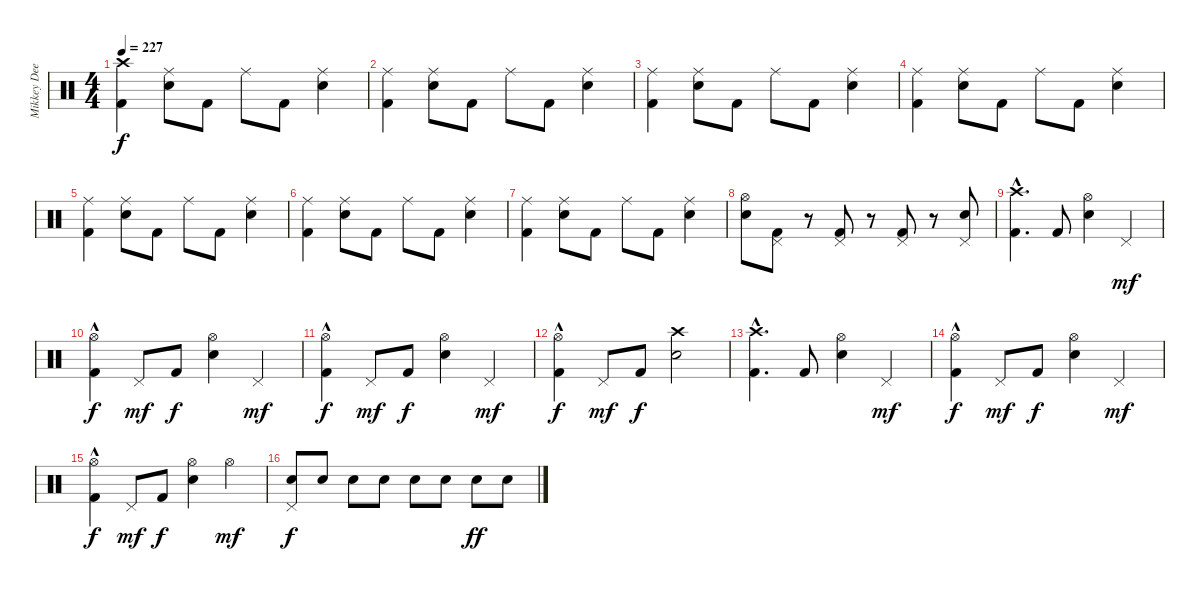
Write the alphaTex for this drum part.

\track ("Mikkey Dee" "Mikkey Dee") {instrument percussion}
\staff {score}
\articulation defaults
\ts (4 4)
\tempo 227
\clef neutral
\ks c
("Crash high (hit)" "Kick (hit) 2").4{dy f} ("Ride (middle)" "Electric Snare (hit)").8 "Kick (hit) 2".8 "Ride (middle)".8 "Kick (hit) 2".8 ("Electric Snare (hit)" "Ride (middle)").4 |
("Ride (middle)" "Kick (hit) 2").4 ("Ride (middle)" "Electric Snare (hit)").8 "Kick (hit) 2".8 "Ride (middle)".8 "Kick (hit) 2".8 ("Ride (middle)" "Electric Snare (hit)").4 |
("Kick (hit) 2" "Ride (middle)").4 ("Electric Snare (hit)" "Ride (middle)").8 "Kick (hit) 2".8 "Ride (middle)".8 "Kick (hit) 2".8 ("Electric Snare (hit)" "Ride (middle)").4 |
("Kick (hit) 2" "Ride (middle)").4 ("Electric Snare (hit)" "Ride (middle)").8 "Kick (hit) 2".8 "Ride (middle)".8 "Kick (hit) 2".8 ("Ride (middle)" "Electric Snare (hit)").4 |
("Ride (middle)" "Kick (hit) 2").4 ("Ride (middle)" "Electric Snare (hit)").8 "Kick (hit) 2".8 "Ride (middle)".8 "Kick (hit) 2".8 ("Electric Snare (hit)" "Ride (middle)").4 |
("Kick (hit) 2" "Ride (middle)").4 ("Ride (middle)" "Electric Snare (hit)").8 "Kick (hit) 2".8 "Ride (middle)".8 "Kick (hit) 2".8 ("Ride (middle)" "Electric Snare (hit)").4 |
("Ride (middle)" "Kick (hit) 2").4 ("Electric Snare (hit)" "Ride (middle)").8 "Kick (hit) 2".8 "Ride (middle)".8 "Kick (hit) 2".8 ("Electric Snare (hit)" "Ride (middle)").4 |
("Hi-Hat (open)" "Electric Snare (hit)").8 ("Pedal Hi-Hat (hit)" "Kick (hit) 2").8 r.8 ("Pedal Hi-Hat (hit)" "Kick (hit) 2").8 r.8 ("Pedal Hi-Hat (hit)" "Kick (hit) 2").8 r.8 ("Pedal Hi-Hat (hit)" "Electric Snare (hit)").8 |
("Kick (hit) 2"{hac} "Crash high (hit)").4{d} "Kick (hit) 2".8 ("Hi-Hat (open)" "Electric Snare (hit)").4 "Pedal Hi-Hat (hit)".4{dy mf} |
("Kick (hit) 2"{hac} "Hi-Hat (open)").4{dy f} "Pedal Hi-Hat (hit)".8{dy mf} "Kick (hit) 2".8{dy f} ("Hi-Hat (open)" "Electric Snare (hit)").4 "Pedal Hi-Hat (hit)".4{dy mf} |
("Hi-Hat (open)" "Kick (hit) 2"{hac}).4{dy f} "Pedal Hi-Hat (hit)".8{dy mf} "Kick (hit) 2".8{dy f} ("Hi-Hat (open)" "Electric Snare (hit)").4 "Pedal Hi-Hat (hit)".4{dy mf} |
("Kick (hit) 2"{hac} "Hi-Hat (open)").4{dy f} "Pedal Hi-Hat (hit)".8{dy mf} "Kick (hit) 2".8{dy f} ("Electric Snare (hit)" "Crash high (hit)").2 |
("Crash high (hit)" "Kick (hit) 2"{hac}).4{d} "Kick (hit) 2".8 ("Electric Snare (hit)" "Hi-Hat (open)").4 "Pedal Hi-Hat (hit)".4{dy mf} |
("Hi-Hat (open)" "Kick (hit) 2"{hac}).4{dy f} "Pedal Hi-Hat (hit)".8{dy mf} "Kick (hit) 2".8{dy f} ("Electric Snare (hit)" "Hi-Hat (open)").4 "Pedal Hi-Hat (hit)".4{dy mf} |
("Kick (hit) 2"{hac} "Hi-Hat (open)").4{dy f} "Pedal Hi-Hat (hit)".8{dy mf} "Kick (hit) 2".8{dy f} ("Hi-Hat (open)" "Electric Snare (hit)").4 "Hi-Hat (open)".4{dy mf} |
("Pedal Hi-Hat (hit)" "Electric Snare (hit)").8{dy f} "Electric Snare (hit)".8 "Electric Snare (hit)".8 "Electric Snare (hit)".8 "Electric Snare (hit)".8 "Electric Snare (hit)".8 "Electric Snare (hit)".8{dy ff} "Electric Snare (hit)".8
